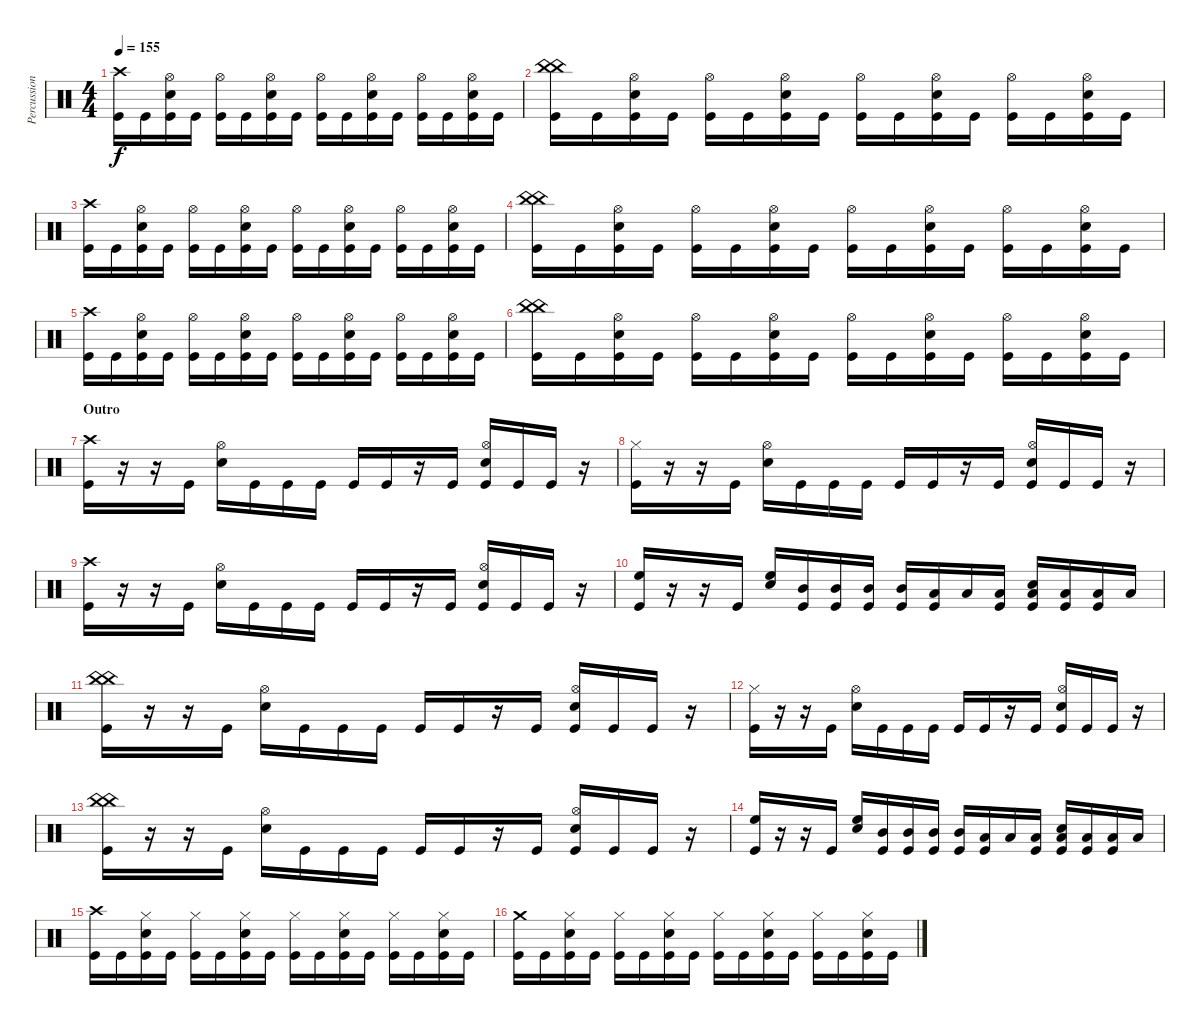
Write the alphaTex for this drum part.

\track ("Percussion" "Percussion") {instrument percussion}
\staff {score}
\articulation defaults
\ts (4 4)
\tempo 155
\clef neutral
\ks c
("Crash high (hit)" "Kick (hit)").16{dy f} "Kick (hit)".16 ("Hi-Hat (open)" "Electric Snare (hit)" "Kick (hit)").16 "Kick (hit)".16 ("Hi-Hat (open)" "Kick (hit)").16 "Kick (hit)".16 ("Hi-Hat (open)" "Electric Snare (hit)" "Kick (hit)").16 "Kick (hit)".16 ("Hi-Hat (open)" "Kick (hit)").16 "Kick (hit)".16 ("Hi-Hat (open)" "Electric Snare (hit)" "Kick (hit)").16 "Kick (hit)".16 ("Hi-Hat (open)" "Kick (hit)").16 "Kick (hit)".16 ("Hi-Hat (open)" "Electric Snare (hit)" "Kick (hit)").16 "Kick (hit)".16 |
("China (hit)" "China (hit)" "Kick (hit)").16 "Kick (hit)".16 ("Hi-Hat (open)" "Electric Snare (hit)" "Kick (hit)").16 "Kick (hit)".16 ("Hi-Hat (open)" "Kick (hit)").16 "Kick (hit)".16 ("Hi-Hat (open)" "Electric Snare (hit)" "Kick (hit)").16 "Kick (hit)".16 ("Hi-Hat (open)" "Kick (hit)").16 "Kick (hit)".16 ("Hi-Hat (open)" "Electric Snare (hit)" "Kick (hit)").16 "Kick (hit)".16 ("Hi-Hat (open)" "Kick (hit)").16 "Kick (hit)".16 ("Hi-Hat (open)" "Electric Snare (hit)" "Kick (hit)").16 "Kick (hit)".16 |
("Crash high (hit)" "Kick (hit)").16 "Kick (hit)".16 ("Hi-Hat (open)" "Electric Snare (hit)" "Kick (hit)").16 "Kick (hit)".16 ("Hi-Hat (open)" "Kick (hit)").16 "Kick (hit)".16 ("Hi-Hat (open)" "Electric Snare (hit)" "Kick (hit)").16 "Kick (hit)".16 ("Hi-Hat (open)" "Kick (hit)").16 "Kick (hit)".16 ("Hi-Hat (open)" "Electric Snare (hit)" "Kick (hit)").16 "Kick (hit)".16 ("Hi-Hat (open)" "Kick (hit)").16 "Kick (hit)".16 ("Hi-Hat (open)" "Electric Snare (hit)" "Kick (hit)").16 "Kick (hit)".16 |
("China (hit)" "China (hit)" "Kick (hit)").16 "Kick (hit)".16 ("Hi-Hat (open)" "Electric Snare (hit)" "Kick (hit)").16 "Kick (hit)".16 ("Hi-Hat (open)" "Kick (hit)").16 "Kick (hit)".16 ("Hi-Hat (open)" "Electric Snare (hit)" "Kick (hit)").16 "Kick (hit)".16 ("Hi-Hat (open)" "Kick (hit)").16 "Kick (hit)".16 ("Hi-Hat (open)" "Electric Snare (hit)" "Kick (hit)").16 "Kick (hit)".16 ("Hi-Hat (open)" "Kick (hit)").16 "Kick (hit)".16 ("Hi-Hat (open)" "Electric Snare (hit)" "Kick (hit)").16 "Kick (hit)".16 |
("Crash high (hit)" "Kick (hit)").16 "Kick (hit)".16 ("Hi-Hat (open)" "Electric Snare (hit)" "Kick (hit)").16 "Kick (hit)".16 ("Hi-Hat (open)" "Kick (hit)").16 "Kick (hit)".16 ("Hi-Hat (open)" "Electric Snare (hit)" "Kick (hit)").16 "Kick (hit)".16 ("Hi-Hat (open)" "Kick (hit)").16 "Kick (hit)".16 ("Hi-Hat (open)" "Electric Snare (hit)" "Kick (hit)").16 "Kick (hit)".16 ("Hi-Hat (open)" "Kick (hit)").16 "Kick (hit)".16 ("Hi-Hat (open)" "Electric Snare (hit)" "Kick (hit)").16 "Kick (hit)".16 |
("China (hit)" "China (hit)" "Kick (hit)").16 "Kick (hit)".16 ("Hi-Hat (open)" "Electric Snare (hit)" "Kick (hit)").16 "Kick (hit)".16 ("Hi-Hat (open)" "Kick (hit)").16 "Kick (hit)".16 ("Hi-Hat (open)" "Electric Snare (hit)" "Kick (hit)").16 "Kick (hit)".16 ("Hi-Hat (open)" "Kick (hit)").16 "Kick (hit)".16 ("Hi-Hat (open)" "Electric Snare (hit)" "Kick (hit)").16 "Kick (hit)".16 ("Hi-Hat (open)" "Kick (hit)").16 "Kick (hit)".16 ("Hi-Hat (open)" "Electric Snare (hit)" "Kick (hit)").16 "Kick (hit)".16 |
\section ("" "Outro")
("Crash high (hit)" "Kick (hit)").16 r.16 r.16 "Kick (hit)".16 ("Hi-Hat (open)" "Electric Snare (hit)").16 "Kick (hit)".16 "Kick (hit)".16 "Kick (hit)".16 "Kick (hit)".16 "Kick (hit)".16 r.16 "Kick (hit)".16 ("Hi-Hat (open)" "Electric Snare (hit)" "Kick (hit)").16 "Kick (hit)".16 "Kick (hit)".16 r.16 |
("Hi-Hat (closed)" "Kick (hit)").16 r.16 r.16 "Kick (hit)".16 ("Hi-Hat (open)" "Electric Snare (hit)").16 "Kick (hit)".16 "Kick (hit)".16 "Kick (hit)".16 "Kick (hit)".16 "Kick (hit)".16 r.16 "Kick (hit)".16 ("Hi-Hat (open)" "Electric Snare (hit)" "Kick (hit)").16 "Kick (hit)".16 "Kick (hit)".16 r.16 |
("Crash high (hit)" "Kick (hit)").16 r.16 r.16 "Kick (hit)".16 ("Hi-Hat (open)" "Electric Snare (hit)").16 "Kick (hit)".16 "Kick (hit)".16 "Kick (hit)".16 "Kick (hit)".16 "Kick (hit)".16 r.16 "Kick (hit)".16 ("Hi-Hat (open)" "Electric Snare (hit)" "Kick (hit)").16 "Kick (hit)".16 "Kick (hit)".16 r.16 |
("High Floor Tom (hit)" "Kick (hit)").16 r.16 r.16 "Kick (hit)".16 ("High Floor Tom (hit)" "Electric Snare (hit)").16 ("Mid Tom (hit)" "Kick (hit)").16 ("Mid Tom (hit)" "Kick (hit)").16 ("Mid Tom (hit)" "Kick (hit)").16 ("Mid Tom (hit)" "Kick (hit)").16 ("Low Tom (hit)" "Kick (hit)").16 "Low Tom (hit)".16 ("Low Tom (hit)" "Kick (hit)").16 ("Low Tom (hit)" "Electric Snare (hit)" "Kick (hit)").16 ("Low Floor Tom (hit)" "Kick (hit)").16 ("Low Floor Tom (hit)" "Kick (hit)").16 "Low Floor Tom (hit)".16 |
("China (hit)" "China (hit)" "Kick (hit)").16 r.16 r.16 "Kick (hit)".16 ("Hi-Hat (open)" "Electric Snare (hit)").16 "Kick (hit)".16 "Kick (hit)".16 "Kick (hit)".16 "Kick (hit)".16 "Kick (hit)".16 r.16 "Kick (hit)".16 ("Hi-Hat (open)" "Electric Snare (hit)" "Kick (hit)").16 "Kick (hit)".16 "Kick (hit)".16 r.16 |
("Hi-Hat (closed)" "Kick (hit)").16 r.16 r.16 "Kick (hit)".16 ("Hi-Hat (open)" "Electric Snare (hit)").16 "Kick (hit)".16 "Kick (hit)".16 "Kick (hit)".16 "Kick (hit)".16 "Kick (hit)".16 r.16 "Kick (hit)".16 ("Hi-Hat (open)" "Electric Snare (hit)" "Kick (hit)").16 "Kick (hit)".16 "Kick (hit)".16 r.16 |
("China (hit)" "China (hit)" "Kick (hit)").16 r.16 r.16 "Kick (hit)".16 ("Hi-Hat (open)" "Electric Snare (hit)").16 "Kick (hit)".16 "Kick (hit)".16 "Kick (hit)".16 "Kick (hit)".16 "Kick (hit)".16 r.16 "Kick (hit)".16 ("Hi-Hat (open)" "Electric Snare (hit)" "Kick (hit)").16 "Kick (hit)".16 "Kick (hit)".16 r.16 |
("High Floor Tom (hit)" "Kick (hit)").16 r.16 r.16 "Kick (hit)".16 ("High Floor Tom (hit)" "Electric Snare (hit)").16 ("Mid Tom (hit)" "Kick (hit)").16 ("Mid Tom (hit)" "Kick (hit)").16 ("Mid Tom (hit)" "Kick (hit)").16 ("Mid Tom (hit)" "Kick (hit)").16 ("Low Tom (hit)" "Kick (hit)").16 "Low Tom (hit)".16 ("Low Tom (hit)" "Kick (hit)").16 ("Low Tom (hit)" "Electric Snare (hit)" "Kick (hit)").16 ("Low Floor Tom (hit)" "Kick (hit)").16 ("Low Floor Tom (hit)" "Kick (hit)").16 "Low Floor Tom (hit)".16 |
("Crash high (hit)" "Kick (hit)").16 "Kick (hit)".16 ("Hi-Hat (closed)" "Electric Snare (hit)" "Kick (hit)").16 "Kick (hit)".16 ("Hi-Hat (closed)" "Kick (hit)").16 "Kick (hit)".16 ("Hi-Hat (closed)" "Electric Snare (hit)" "Kick (hit)").16 "Kick (hit)".16 ("Hi-Hat (closed)" "Kick (hit)").16 "Kick (hit)".16 ("Hi-Hat (closed)" "Electric Snare (hit)" "Kick (hit)").16 "Kick (hit)".16 ("Hi-Hat (closed)" "Kick (hit)").16 "Kick (hit)".16 ("Hi-Hat (closed)" "Electric Snare (hit)" "Kick (hit)").16 "Kick (hit)".16 |
("Crash medium (hit)" "Kick (hit)").16 "Kick (hit)".16 ("Hi-Hat (closed)" "Electric Snare (hit)" "Kick (hit)").16 "Kick (hit)".16 ("Hi-Hat (closed)" "Kick (hit)").16 "Kick (hit)".16 ("Hi-Hat (closed)" "Electric Snare (hit)" "Kick (hit)").16 "Kick (hit)".16 ("Hi-Hat (closed)" "Kick (hit)").16 "Kick (hit)".16 ("Hi-Hat (closed)" "Electric Snare (hit)" "Kick (hit)").16 "Kick (hit)".16 ("Hi-Hat (closed)" "Kick (hit)").16 "Kick (hit)".16 ("Hi-Hat (closed)" "Electric Snare (hit)" "Kick (hit)").16 "Kick (hit)".16
